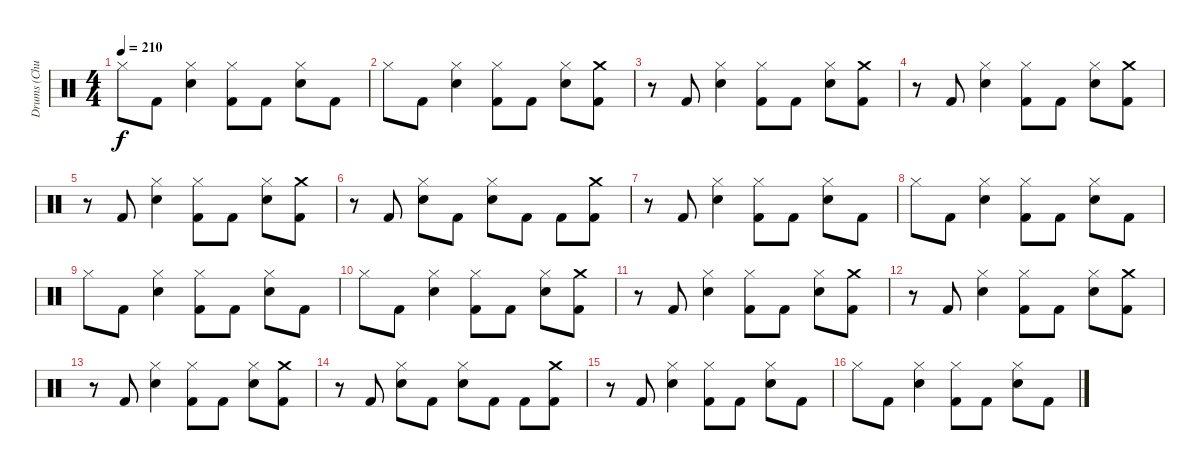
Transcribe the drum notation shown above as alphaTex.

\track ("Drums (Chuck Behler)" "Drums (Chu") {instrument percussion}
\staff {score}
\articulation defaults
\ts (4 4)
\tempo 210
\clef neutral
\ks c "Hi-Hat (closed)".8{dy f} "Kick (hit) 2".8
("Hi-Hat (closed)" "Snare (hit) 2").4 ("Hi-Hat (closed)" "Kick (hit) 2").8 "Kick (hit) 2".8 ("Hi-Hat (closed)" "Snare (hit) 2").8 "Kick (hit) 2".8 |
"Hi-Hat (closed)".8 "Kick (hit) 2".8 ("Hi-Hat (closed)" "Snare (hit) 2").4 ("Hi-Hat (closed)" "Kick (hit) 2").8 "Kick (hit) 2".8 ("Hi-Hat (closed)" "Snare (hit) 2").8 ("Crash medium (hit)" "Kick (hit) 2").8 |
r.8 "Kick (hit) 2".8 ("Hi-Hat (closed)" "Snare (hit) 2").4 ("Hi-Hat (closed)" "Kick (hit) 2").8 "Kick (hit) 2".8 ("Hi-Hat (closed)" "Snare (hit) 2").8 ("Crash medium (hit)" "Kick (hit) 2").8 |
r.8 "Kick (hit) 2".8 ("Hi-Hat (closed)" "Snare (hit) 2").4 ("Hi-Hat (closed)" "Kick (hit) 2").8 "Kick (hit) 2".8 ("Hi-Hat (closed)" "Snare (hit) 2").8 ("Crash medium (hit)" "Kick (hit) 2").8 |
r.8 "Kick (hit) 2".8 ("Hi-Hat (closed)" "Snare (hit) 2").4 ("Hi-Hat (closed)" "Kick (hit) 2").8 "Kick (hit) 2".8 ("Hi-Hat (closed)" "Snare (hit) 2").8 ("Crash medium (hit)" "Kick (hit) 2").8 |
r.8 "Kick (hit) 2".8 ("Hi-Hat (closed)" "Snare (hit) 2").8 "Kick (hit) 2".8 ("Hi-Hat (closed)" "Snare (hit) 2").8 "Kick (hit) 2".8 "Kick (hit) 2".8 ("Crash medium (hit)" "Kick (hit) 2").8 |
r.8 "Kick (hit) 2".8 ("Hi-Hat (closed)" "Snare (hit) 2").4 ("Hi-Hat (closed)" "Kick (hit) 2").8 "Kick (hit) 2".8 ("Hi-Hat (closed)" "Snare (hit) 2").8 "Kick (hit) 2".8 |
"Hi-Hat (closed)".8 "Kick (hit) 2".8 ("Hi-Hat (closed)" "Snare (hit) 2").4 ("Hi-Hat (closed)" "Kick (hit) 2").8 "Kick (hit) 2".8 ("Hi-Hat (closed)" "Snare (hit) 2").8 "Kick (hit) 2".8 |
"Hi-Hat (closed)".8 "Kick (hit) 2".8 ("Hi-Hat (closed)" "Snare (hit) 2").4 ("Hi-Hat (closed)" "Kick (hit) 2").8 "Kick (hit) 2".8 ("Hi-Hat (closed)" "Snare (hit) 2").8 "Kick (hit) 2".8 |
"Hi-Hat (closed)".8 "Kick (hit) 2".8 ("Hi-Hat (closed)" "Snare (hit) 2").4 ("Hi-Hat (closed)" "Kick (hit) 2").8 "Kick (hit) 2".8 ("Hi-Hat (closed)" "Snare (hit) 2").8 ("Crash medium (hit)" "Kick (hit) 2").8 |
r.8 "Kick (hit) 2".8 ("Hi-Hat (closed)" "Snare (hit) 2").4 ("Hi-Hat (closed)" "Kick (hit) 2").8 "Kick (hit) 2".8 ("Hi-Hat (closed)" "Snare (hit) 2").8 ("Crash medium (hit)" "Kick (hit) 2").8 |
r.8 "Kick (hit) 2".8 ("Hi-Hat (closed)" "Snare (hit) 2").4 ("Hi-Hat (closed)" "Kick (hit) 2").8 "Kick (hit) 2".8 ("Hi-Hat (closed)" "Snare (hit) 2").8 ("Crash medium (hit)" "Kick (hit) 2").8 |
r.8 "Kick (hit) 2".8 ("Hi-Hat (closed)" "Snare (hit) 2").4 ("Hi-Hat (closed)" "Kick (hit) 2").8 "Kick (hit) 2".8 ("Hi-Hat (closed)" "Snare (hit) 2").8 ("Crash medium (hit)" "Kick (hit) 2").8 |
r.8 "Kick (hit) 2".8 ("Hi-Hat (closed)" "Snare (hit) 2").8 "Kick (hit) 2".8 ("Hi-Hat (closed)" "Snare (hit) 2").8 "Kick (hit) 2".8 "Kick (hit) 2".8 ("Crash medium (hit)" "Kick (hit) 2").8 |
r.8 "Kick (hit) 2".8 ("Hi-Hat (closed)" "Snare (hit) 2").4 ("Hi-Hat (closed)" "Kick (hit) 2").8 "Kick (hit) 2".8 ("Hi-Hat (closed)" "Snare (hit) 2").8 "Kick (hit) 2".8 |
"Hi-Hat (closed)".8 "Kick (hit) 2".8 ("Hi-Hat (closed)" "Snare (hit) 2").4 ("Hi-Hat (closed)" "Kick (hit) 2").8 "Kick (hit) 2".8 ("Hi-Hat (closed)" "Snare (hit) 2").8 "Kick (hit) 2".8
